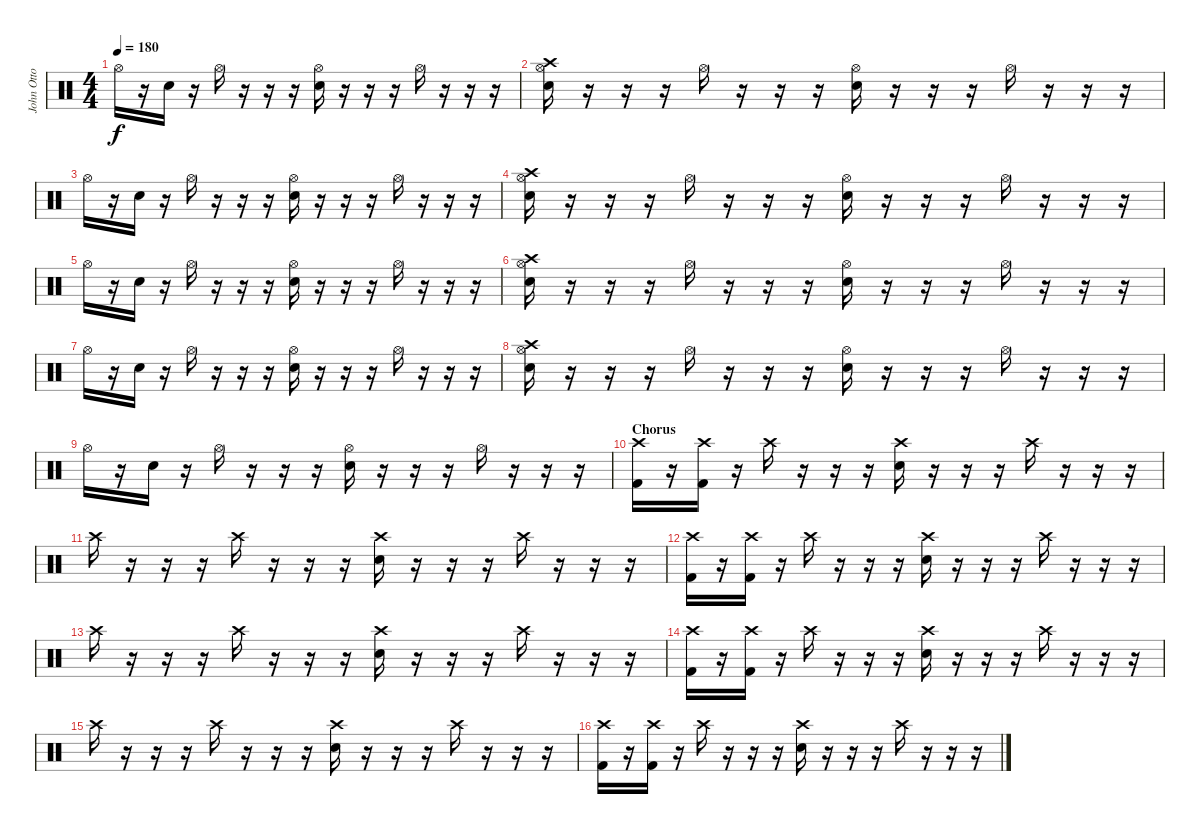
\track ("John Otto" "John Otto") {instrument percussion}
\staff {score}
\articulation defaults
\ts (4 4)
\tempo 180
\clef neutral
\ks c "Hi-Hat (open)".16{dy f}
r.16 "Snare (hit) 2".16 r.16 "Hi-Hat (open)".16 r.16 r.16 r.16 ("Hi-Hat (open)" "Snare (hit) 2").16 r.16 r.16 r.16 "Hi-Hat (open)".16 r.16 r.16 r.16 |
("Hi-Hat (open)" "Crash high (hit)" "Snare (hit) 2").16 r.16 r.16 r.16 "Hi-Hat (open)".16 r.16 r.16 r.16 ("Hi-Hat (open)" "Snare (hit) 2").16 r.16 r.16 r.16 "Hi-Hat (open)".16 r.16 r.16 r.16 |
"Hi-Hat (open)".16 r.16 "Snare (hit) 2".16 r.16 "Hi-Hat (open)".16 r.16 r.16 r.16 ("Hi-Hat (open)" "Snare (hit) 2").16 r.16 r.16 r.16 "Hi-Hat (open)".16 r.16 r.16 r.16 |
("Hi-Hat (open)" "Crash high (hit)" "Snare (hit) 2").16 r.16 r.16 r.16 "Hi-Hat (open)".16 r.16 r.16 r.16 ("Hi-Hat (open)" "Snare (hit) 2").16 r.16 r.16 r.16 "Hi-Hat (open)".16 r.16 r.16 r.16 |
"Hi-Hat (open)".16 r.16 "Snare (hit) 2".16 r.16 "Hi-Hat (open)".16 r.16 r.16 r.16 ("Hi-Hat (open)" "Snare (hit) 2").16 r.16 r.16 r.16 "Hi-Hat (open)".16 r.16 r.16 r.16 |
("Hi-Hat (open)" "Crash high (hit)" "Snare (hit) 2").16 r.16 r.16 r.16 "Hi-Hat (open)".16 r.16 r.16 r.16 ("Hi-Hat (open)" "Snare (hit) 2").16 r.16 r.16 r.16 "Hi-Hat (open)".16 r.16 r.16 r.16 |
"Hi-Hat (open)".16 r.16 "Snare (hit) 2".16 r.16 "Hi-Hat (open)".16 r.16 r.16 r.16 ("Hi-Hat (open)" "Snare (hit) 2").16 r.16 r.16 r.16 "Hi-Hat (open)".16 r.16 r.16 r.16 |
("Hi-Hat (open)" "Crash high (hit)" "Snare (hit) 2").16 r.16 r.16 r.16 "Hi-Hat (open)".16 r.16 r.16 r.16 ("Hi-Hat (open)" "Snare (hit) 2").16 r.16 r.16 r.16 "Hi-Hat (open)".16 r.16 r.16 r.16 |
"Hi-Hat (open)".16 r.16 "Snare (hit) 2".16 r.16 "Hi-Hat (open)".16 r.16 r.16 r.16 ("Hi-Hat (open)" "Snare (hit) 2").16 r.16 r.16 r.16 "Hi-Hat (open)".16 r.16 r.16 r.16 |
\section ("" "Chorus")
("Crash high (hit)" "Kick (hit) 2").16 r.16 ("Crash high (hit)" "Kick (hit) 2").16 r.16 "Crash high (hit)".16 r.16 r.16 r.16 ("Crash high (hit)" "Snare (hit) 2").16 r.16 r.16 r.16 "Crash high (hit)".16 r.16 r.16 r.16 |
"Crash high (hit)".16 r.16 r.16 r.16 "Crash high (hit)".16 r.16 r.16 r.16 ("Crash high (hit)" "Snare (hit) 2").16 r.16 r.16 r.16 "Crash high (hit)".16 r.16 r.16 r.16 |
("Crash high (hit)" "Kick (hit) 2").16 r.16 ("Crash high (hit)" "Kick (hit) 2").16 r.16 "Crash high (hit)".16 r.16 r.16 r.16 ("Crash high (hit)" "Snare (hit) 2").16 r.16 r.16 r.16 "Crash high (hit)".16 r.16 r.16 r.16 |
"Crash high (hit)".16 r.16 r.16 r.16 "Crash high (hit)".16 r.16 r.16 r.16 ("Crash high (hit)" "Snare (hit) 2").16 r.16 r.16 r.16 "Crash high (hit)".16 r.16 r.16 r.16 |
("Crash high (hit)" "Kick (hit) 2").16 r.16 ("Crash high (hit)" "Kick (hit) 2").16 r.16 "Crash high (hit)".16 r.16 r.16 r.16 ("Crash high (hit)" "Snare (hit) 2").16 r.16 r.16 r.16 "Crash high (hit)".16 r.16 r.16 r.16 |
"Crash high (hit)".16 r.16 r.16 r.16 "Crash high (hit)".16 r.16 r.16 r.16 ("Crash high (hit)" "Snare (hit) 2").16 r.16 r.16 r.16 "Crash high (hit)".16 r.16 r.16 r.16 |
("Crash high (hit)" "Kick (hit) 2").16 r.16 ("Crash high (hit)" "Kick (hit) 2").16 r.16 "Crash high (hit)".16 r.16 r.16 r.16 ("Crash high (hit)" "Snare (hit) 2").16 r.16 r.16 r.16 "Crash high (hit)".16 r.16 r.16 r.16
